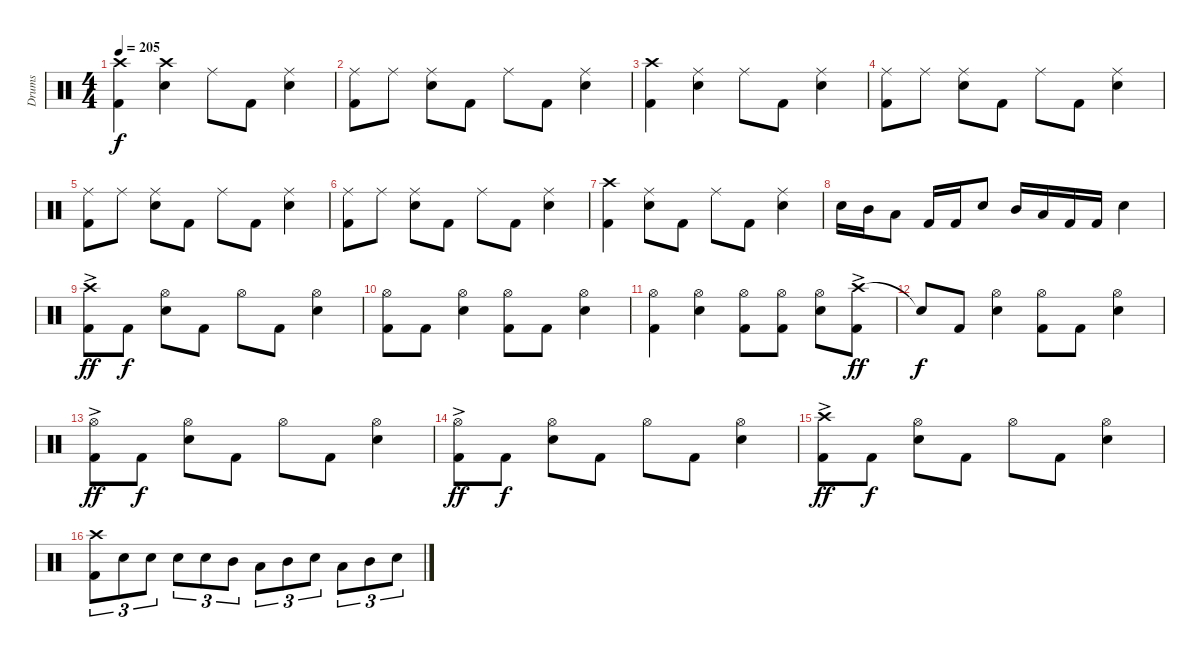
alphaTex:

\track ("Drums" "Drums") {instrument percussion}
\staff {score}
\articulation defaults
\ts (4 4)
\tempo 205
\clef neutral
\ks c
("Crash high (hit)" "Kick (hit) 2").4{dy f} ("Crash high (hit)" "Electric Snare (hit)").4 "Ride (middle)".8 "Kick (hit) 2".8 ("Ride (middle)" "Electric Snare (hit)").4 |
("Ride (middle)" "Kick (hit) 2").8 "Ride (middle)".8 ("Ride (middle)" "Electric Snare (hit)").8 "Kick (hit) 2".8 "Ride (middle)".8 "Kick (hit) 2".8 ("Ride (middle)" "Electric Snare (hit)").4 |
("Crash high (hit)" "Kick (hit) 2").4 ("Ride (middle)" "Electric Snare (hit)").4 "Ride (middle)".8 "Kick (hit) 2".8 ("Ride (middle)" "Electric Snare (hit)").4 |
("Ride (middle)" "Kick (hit) 2").8 "Ride (middle)".8 ("Ride (middle)" "Electric Snare (hit)").8 "Kick (hit) 2".8 "Ride (middle)".8 "Kick (hit) 2".8 ("Ride (middle)" "Electric Snare (hit)").4 |
("Ride (middle)" "Kick (hit) 2").8 "Ride (middle)".8 ("Ride (middle)" "Electric Snare (hit)").8 "Kick (hit) 2".8 "Ride (middle)".8 "Kick (hit) 2".8 ("Ride (middle)" "Electric Snare (hit)").4 |
("Ride (middle)" "Kick (hit) 2").8 "Ride (middle)".8 ("Ride (middle)" "Electric Snare (hit)").8 "Kick (hit) 2".8 "Ride (middle)".8 "Kick (hit) 2".8 ("Ride (middle)" "Electric Snare (hit)").4 |
("Crash high (hit)" "Kick (hit) 2").4 ("Ride (middle)" "Electric Snare (hit)").8 "Kick (hit) 2".8 "Ride (middle)".8 "Kick (hit) 2".8 ("Ride (middle)" "Electric Snare (hit)").4 |
"Electric Snare (hit)".16 "Mid Tom (hit)".16 "Low Tom (hit)".8 "Kick (hit) 2".16 "Kick (hit) 2".16 "Electric Snare (hit)".8 "Mid Tom (hit)".16 "Low Tom (hit)".16 "Kick (hit) 2".16 "Kick (hit) 2".16 "Electric Snare (hit)".4 |
("Crash high (hit)"{ac} "Kick (hit) 2").8{dy ff} "Kick (hit) 2".8{dy f} ("Hi-Hat (open)" "Electric Snare (hit)").8 "Kick (hit) 2".8 "Hi-Hat (open)".8 "Kick (hit) 2".8 ("Hi-Hat (open)" "Electric Snare (hit)").4 |
("Hi-Hat (open)" "Kick (hit) 2").8 "Kick (hit) 2".8 ("Hi-Hat (open)" "Electric Snare (hit)").4 ("Hi-Hat (open)" "Kick (hit) 2").8 "Kick (hit) 2".8 ("Hi-Hat (open)" "Electric Snare (hit)").4 |
("Hi-Hat (open)" "Kick (hit) 2").4 ("Hi-Hat (open)" "Electric Snare (hit)").4 ("Hi-Hat (open)" "Kick (hit) 2").8 ("Hi-Hat (open)" "Kick (hit) 2").8 ("Hi-Hat (open)" "Electric Snare (hit)").8 ("Crash high (hit)"{ac} "Kick (hit) 2").8{dy ff} |
"Snare (hit)"{t}.8{dy f} "Kick (hit) 2".8 ("Hi-Hat (open)" "Electric Snare (hit)").4 ("Hi-Hat (open)" "Kick (hit) 2").8 "Kick (hit) 2".8 ("Hi-Hat (open)" "Electric Snare (hit)").4 |
("Hi-Hat (open)"{ac} "Kick (hit) 2").8{dy ff} "Kick (hit) 2".8{dy f} ("Hi-Hat (open)" "Electric Snare (hit)").8 "Kick (hit) 2".8 "Hi-Hat (open)".8 "Kick (hit) 2".8 ("Hi-Hat (open)" "Electric Snare (hit)").4 |
("Hi-Hat (open)"{ac} "Kick (hit) 2").8{dy ff} "Kick (hit) 2".8{dy f} ("Hi-Hat (open)" "Electric Snare (hit)").8 "Kick (hit) 2".8 "Hi-Hat (open)".8 "Kick (hit) 2".8 ("Hi-Hat (open)" "Electric Snare (hit)").4 |
("Crash high (hit)"{ac} "Kick (hit) 2").8{dy ff} "Kick (hit) 2".8{dy f} ("Hi-Hat (open)" "Electric Snare (hit)").8 "Kick (hit) 2".8 "Hi-Hat (open)".8 "Kick (hit) 2".8 ("Hi-Hat (open)" "Electric Snare (hit)").4 |
("Crash high (hit)" "Kick (hit) 2").8{tu (3 2)} "Electric Snare (hit)".8{tu (3 2)} "Electric Snare (hit)".8{tu (3 2)} "Electric Snare (hit)".8{tu (3 2)} "Electric Snare (hit)".8{tu (3 2)} "Mid Tom (hit)".8{tu (3 2)} "Low Tom (hit)".8{tu (3 2)} "Mid Tom (hit)".8{tu (3 2)} "Electric Snare (hit)".8{tu (3 2)} "Low Tom (hit)".8{tu (3 2)} "Mid Tom (hit)".8{tu (3 2)} "Electric Snare (hit)".8{tu (3 2)}
